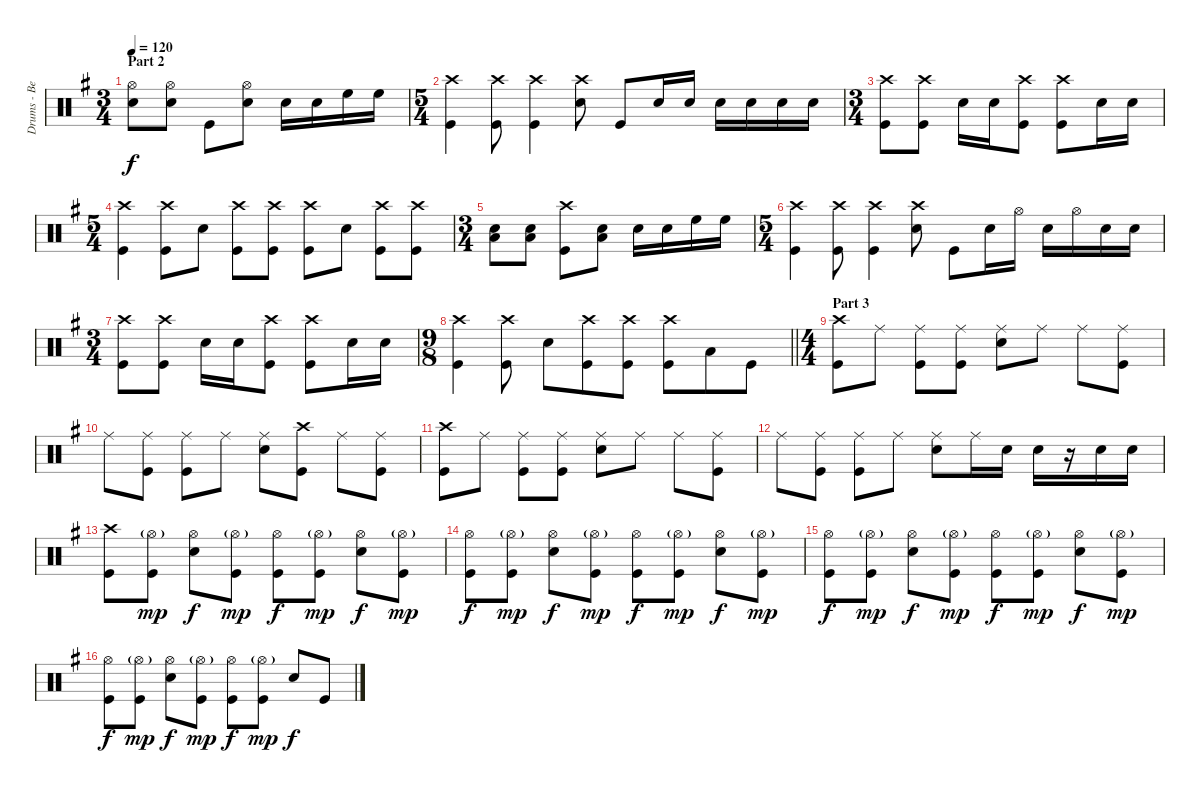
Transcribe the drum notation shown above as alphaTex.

\track ("Drums - Ben Johnston" "Drums - Be") {instrument percussion}
\staff {score}
\articulation defaults
\ts (3 4)
\section ("" "Part 2")
\tempo 120
\clef neutral
\ks eminor
("Hi-Hat (open)" "Snare (hit) 2").8{dy f} ("Hi-Hat (open)" "Snare (hit) 2").8 "Kick (hit)".8 ("Hi-Hat (open)" "Snare (hit) 2").8 "Snare (hit) 2".16 "Snare (hit) 2".16 "High Floor Tom (hit)".16 "High Floor Tom (hit)".16 |
\ts (5 4)
("Crash high (hit)" "Kick (hit)").4 ("Crash high (hit)" "Kick (hit)").8 ("Crash high (hit)" "Kick (hit)").4 ("Crash high (hit)" "Snare (hit) 2").8 "Kick (hit)".8 "Snare (hit) 2".16 "Snare (hit) 2".16 "Snare (hit) 2".16 "Snare (hit) 2".16 "Snare (hit) 2".16 "Snare (hit) 2".16 |
\ts (3 4)
("Crash high (hit)" "Kick (hit)").8 ("Crash high (hit)" "Kick (hit)").8 "Snare (hit) 2".16 "Snare (hit) 2".16 ("Crash high (hit)" "Kick (hit)").8 ("Crash high (hit)" "Kick (hit)").8 "Snare (hit) 2".16 "Snare (hit) 2".16 |
\ts (5 4)
("Crash high (hit)" "Kick (hit)").4 ("Crash high (hit)" "Kick (hit)").8 "Snare (hit) 2".8 ("Crash high (hit)" "Kick (hit)").8 ("Crash high (hit)" "Kick (hit)").8 ("Crash high (hit)" "Kick (hit)").8 "Snare (hit) 2".8 ("Crash high (hit)" "Kick (hit)").8 ("Crash high (hit)" "Kick (hit)").8 |
\ts (3 4)
("Low Tom (hit)" "Snare (hit) 2").8 ("Low Tom (hit)" "Snare (hit) 2").8 ("Crash high (hit)" "Kick (hit)").8 ("Low Tom (hit)" "Snare (hit) 2").8 "Snare (hit) 2".16 "Snare (hit) 2".16 "High Floor Tom (hit)".16 "High Floor Tom (hit)".16 |
\ts (5 4)
("Crash high (hit)" "Kick (hit)").4 ("Crash high (hit)" "Kick (hit)").8 ("Crash high (hit)" "Kick (hit)").4 ("Crash high (hit)" "Snare (hit) 2").8 "Kick (hit)".8 "Snare (hit) 2".16 "Hi-Hat (open)".16 "Snare (hit) 2".16 "Hi-Hat (open)".16 "Snare (hit) 2".16 "Snare (hit) 2".16 |
\ts (3 4)
("Crash high (hit)" "Kick (hit)").8 ("Crash high (hit)" "Kick (hit)").8 "Snare (hit) 2".16 "Snare (hit) 2".16 ("Crash high (hit)" "Kick (hit)").8 ("Crash high (hit)" "Kick (hit)").8 "Snare (hit) 2".16 "Snare (hit) 2".16 |
\ts (9 8)
\barLineRight lightlight
("Crash high (hit)" "Kick (hit)").4 ("Crash high (hit)" "Kick (hit)").8 "Snare (hit) 2".8 ("Crash high (hit)" "Kick (hit)").8 ("Crash high (hit)" "Kick (hit)").8 ("Crash high (hit)" "Kick (hit)").8 "Low Tom (hit)".8 "Kick (hit)".8 |
\ts (4 4)
\section ("" "Part 3")
("Crash high (hit)" "Kick (hit)").8 "Ride (middle)".8 ("Ride (middle)" "Kick (hit)").8 ("Ride (middle)" "Kick (hit)").8 ("Ride (middle)" "Snare (hit) 2").8 "Ride (middle)".8 "Ride (middle)".8 ("Ride (middle)" "Kick (hit)").8 |
"Ride (middle)".8 ("Ride (middle)" "Kick (hit)").8 ("Ride (middle)" "Kick (hit)").8 "Ride (middle)".8 ("Ride (middle)" "Snare (hit) 2").8 ("Crash high (hit)" "Kick (hit)").8 "Ride (middle)".8 ("Ride (middle)" "Kick (hit)").8 |
("Crash high (hit)" "Kick (hit)").8 "Ride (middle)".8 ("Ride (middle)" "Kick (hit)").8 ("Ride (middle)" "Kick (hit)").8 ("Ride (middle)" "Snare (hit) 2").8 "Ride (middle)".8 "Ride (middle)".8 ("Ride (middle)" "Kick (hit)").8 |
"Ride (middle)".8 ("Ride (middle)" "Kick (hit)").8 ("Ride (middle)" "Kick (hit)").8 "Ride (middle)".8 ("Ride (middle)" "Snare (hit) 2").8 "Ride (middle)".16 "Snare (hit) 2".16 "Snare (hit) 2".16 r.16 "Snare (hit) 2".16 "Snare (hit) 2".16 |
("Crash high (hit)" "Kick (hit)").8 ("Hi-Hat (open)"{g} "Kick (hit)").8{dy mp} ("Hi-Hat (open)" "Snare (hit) 2").8{dy f} ("Hi-Hat (open)"{g} "Kick (hit)").8{dy mp} ("Hi-Hat (open)" "Kick (hit)").8{dy f} ("Hi-Hat (open)"{g} "Kick (hit)").8{dy mp} ("Hi-Hat (open)" "Snare (hit) 2").8{dy f} ("Hi-Hat (open)"{g} "Kick (hit)").8{dy mp} |
("Hi-Hat (open)" "Kick (hit)").8{dy f} ("Hi-Hat (open)"{g} "Kick (hit)").8{dy mp} ("Hi-Hat (open)" "Snare (hit) 2").8{dy f} ("Hi-Hat (open)"{g} "Kick (hit)").8{dy mp} ("Hi-Hat (open)" "Kick (hit)").8{dy f} ("Hi-Hat (open)"{g} "Kick (hit)").8{dy mp} ("Hi-Hat (open)" "Snare (hit) 2").8{dy f} ("Hi-Hat (open)"{g} "Kick (hit)").8{dy mp} |
("Hi-Hat (open)" "Kick (hit)").8{dy f} ("Hi-Hat (open)"{g} "Kick (hit)").8{dy mp} ("Hi-Hat (open)" "Snare (hit) 2").8{dy f} ("Hi-Hat (open)"{g} "Kick (hit)").8{dy mp} ("Hi-Hat (open)" "Kick (hit)").8{dy f} ("Hi-Hat (open)"{g} "Kick (hit)").8{dy mp} ("Hi-Hat (open)" "Snare (hit) 2").8{dy f} ("Hi-Hat (open)"{g} "Kick (hit)").8{dy mp} |
("Hi-Hat (open)" "Kick (hit)").8{dy f} ("Hi-Hat (open)"{g} "Kick (hit)").8{dy mp} ("Hi-Hat (open)" "Snare (hit) 2").8{dy f} ("Hi-Hat (open)"{g} "Kick (hit)").8{dy mp} ("Hi-Hat (open)" "Kick (hit)").8{dy f} ("Hi-Hat (open)"{g} "Kick (hit)").8{dy mp} "Snare (hit) 2".8{dy f} "Kick (hit)".8
